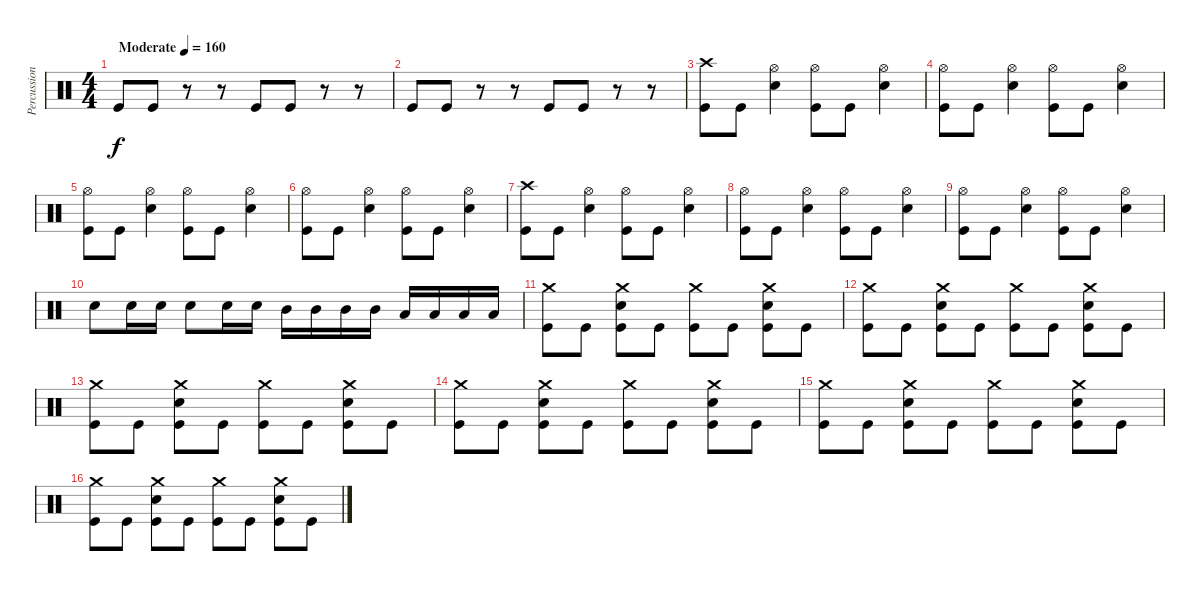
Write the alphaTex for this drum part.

\track ("Percussion" "Percussion") {instrument percussion}
\staff {score}
\articulation defaults
\ts (4 4)
\tempo (160 "Moderate")
\clef neutral
\ks c "Kick (hit)".8{dy f} "Kick (hit)".8
r.8 r.8 "Kick (hit)".8 "Kick (hit)".8 r.8 r.8 |
"Kick (hit)".8 "Kick (hit)".8 r.8 r.8 "Kick (hit)".8 "Kick (hit)".8 r.8 r.8 |
("Crash high (hit)" "Kick (hit)").8 "Kick (hit)".8 ("Hi-Hat (open)" "Electric Snare (hit)").4 ("Hi-Hat (open)" "Kick (hit)").8 "Kick (hit)".8 ("Hi-Hat (open)" "Electric Snare (hit)").4 |
("Hi-Hat (open)" "Kick (hit)").8 "Kick (hit)".8 ("Hi-Hat (open)" "Electric Snare (hit)").4 ("Hi-Hat (open)" "Kick (hit)").8 "Kick (hit)".8 ("Hi-Hat (open)" "Electric Snare (hit)").4 |
("Hi-Hat (open)" "Kick (hit)").8 "Kick (hit)".8 ("Hi-Hat (open)" "Electric Snare (hit)").4 ("Hi-Hat (open)" "Kick (hit)").8 "Kick (hit)".8 ("Hi-Hat (open)" "Electric Snare (hit)").4 |
("Hi-Hat (open)" "Kick (hit)").8 "Kick (hit)".8 ("Hi-Hat (open)" "Electric Snare (hit)").4 ("Hi-Hat (open)" "Kick (hit)").8 "Kick (hit)".8 ("Hi-Hat (open)" "Electric Snare (hit)").4 |
("Crash high (hit)" "Kick (hit)").8 "Kick (hit)".8 ("Hi-Hat (open)" "Electric Snare (hit)").4 ("Hi-Hat (open)" "Kick (hit)").8 "Kick (hit)".8 ("Hi-Hat (open)" "Electric Snare (hit)").4 |
("Hi-Hat (open)" "Kick (hit)").8 "Kick (hit)".8 ("Hi-Hat (open)" "Electric Snare (hit)").4 ("Hi-Hat (open)" "Kick (hit)").8 "Kick (hit)".8 ("Hi-Hat (open)" "Electric Snare (hit)").4 |
("Hi-Hat (open)" "Kick (hit)").8 "Kick (hit)".8 ("Hi-Hat (open)" "Electric Snare (hit)").4 ("Hi-Hat (open)" "Kick (hit)").8 "Kick (hit)".8 ("Hi-Hat (open)" "Electric Snare (hit)").4 |
"Electric Snare (hit)".8 "Electric Snare (hit)".16 "Electric Snare (hit)".16 "Electric Snare (hit)".8 "Electric Snare (hit)".16 "Electric Snare (hit)".16 "Mid Tom (hit)".16 "Mid Tom (hit)".16 "Mid Tom (hit)".16 "Mid Tom (hit)".16 "Low Tom (hit)".16 "Low Tom (hit)".16 "Low Tom (hit)".16 "Low Tom (hit)".16 |
("Crash medium (hit)" "Kick (hit)").8 "Kick (hit)".8 ("Crash medium (hit)" "Electric Snare (hit)" "Kick (hit)").8 "Kick (hit)".8 ("Crash medium (hit)" "Kick (hit)").8 "Kick (hit)".8 ("Crash medium (hit)" "Electric Snare (hit)" "Kick (hit)").8 "Kick (hit)".8 |
("Crash medium (hit)" "Kick (hit)").8 "Kick (hit)".8 ("Crash medium (hit)" "Electric Snare (hit)" "Kick (hit)").8 "Kick (hit)".8 ("Crash medium (hit)" "Kick (hit)").8 "Kick (hit)".8 ("Crash medium (hit)" "Electric Snare (hit)" "Kick (hit)").8 "Kick (hit)".8 |
("Crash medium (hit)" "Kick (hit)").8 "Kick (hit)".8 ("Crash medium (hit)" "Electric Snare (hit)" "Kick (hit)").8 "Kick (hit)".8 ("Crash medium (hit)" "Kick (hit)").8 "Kick (hit)".8 ("Crash medium (hit)" "Electric Snare (hit)" "Kick (hit)").8 "Kick (hit)".8 |
("Crash medium (hit)" "Kick (hit)").8 "Kick (hit)".8 ("Crash medium (hit)" "Electric Snare (hit)" "Kick (hit)").8 "Kick (hit)".8 ("Crash medium (hit)" "Kick (hit)").8 "Kick (hit)".8 ("Crash medium (hit)" "Electric Snare (hit)" "Kick (hit)").8 "Kick (hit)".8 |
("Crash medium (hit)" "Kick (hit)").8 "Kick (hit)".8 ("Crash medium (hit)" "Electric Snare (hit)" "Kick (hit)").8 "Kick (hit)".8 ("Crash medium (hit)" "Kick (hit)").8 "Kick (hit)".8 ("Crash medium (hit)" "Electric Snare (hit)" "Kick (hit)").8 "Kick (hit)".8 |
("Crash medium (hit)" "Kick (hit)").8 "Kick (hit)".8 ("Crash medium (hit)" "Electric Snare (hit)" "Kick (hit)").8 "Kick (hit)".8 ("Crash medium (hit)" "Kick (hit)").8 "Kick (hit)".8 ("Crash medium (hit)" "Electric Snare (hit)" "Kick (hit)").8 "Kick (hit)".8
